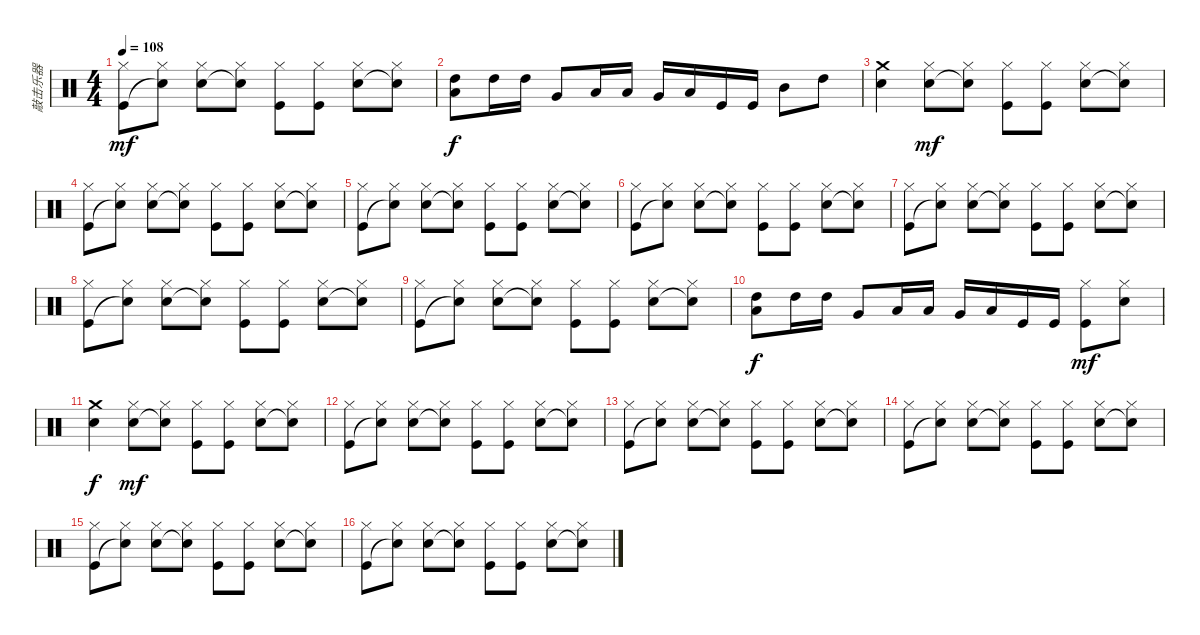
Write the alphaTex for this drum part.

\track ("敲击乐器" "敲击乐器") {instrument percussion}
\staff {score}
\articulation defaults
\ts (4 4)
\tempo 108
\clef neutral
\ks c
("Hi-Hat (closed)" "Kick (hit)").8{dy mf} ("Hi-Hat (closed)" "Snare (hit)"{t}).8 ("Hi-Hat (closed)" "Electric Snare (hit)").8 ("Hi-Hat (closed)" "Snare (hit)"{t}).8 ("Hi-Hat (closed)" "Kick (hit)").8 ("Hi-Hat (closed)" "Kick (hit)").8 ("Hi-Hat (closed)" "Electric Snare (hit)").8 ("Hi-Hat (closed)" "Snare (hit)"{t}).8 |
("Low Tom (hit)" "High Tom (hit)").8{dy f} "High Tom (hit)".16 "High Tom (hit)".16 "Very Low Tom (hit)".8 "Low Tom (hit)".16 "Low Tom (hit)".16 "Very Low Tom (hit)".16 "Low Floor Tom (hit)".16 "Kick (hit)".16 "Kick (hit)".16 "Mid Tom (hit)".8 "High Tom (hit)".8 |
("Crash medium (hit)" "Electric Snare (hit)").4 ("Hi-Hat (closed)" "Electric Snare (hit)").8{dy mf} ("Hi-Hat (closed)" "Snare (hit)"{t}).8 ("Hi-Hat (closed)" "Kick (hit)").8 ("Hi-Hat (closed)" "Kick (hit)").8 ("Hi-Hat (closed)" "Electric Snare (hit)").8 ("Hi-Hat (closed)" "Snare (hit)"{t}).8 |
("Hi-Hat (closed)" "Kick (hit)").8 ("Hi-Hat (closed)" "Snare (hit)"{t}).8 ("Hi-Hat (closed)" "Electric Snare (hit)").8 ("Hi-Hat (closed)" "Snare (hit)"{t}).8 ("Hi-Hat (closed)" "Kick (hit)").8 ("Hi-Hat (closed)" "Kick (hit)").8 ("Hi-Hat (closed)" "Electric Snare (hit)").8 ("Hi-Hat (closed)" "Snare (hit)"{t}).8 |
("Hi-Hat (closed)" "Kick (hit)").8 ("Hi-Hat (closed)" "Snare (hit)"{t}).8 ("Hi-Hat (closed)" "Electric Snare (hit)").8 ("Hi-Hat (closed)" "Snare (hit)"{t}).8 ("Hi-Hat (closed)" "Kick (hit)").8 ("Hi-Hat (closed)" "Kick (hit)").8 ("Hi-Hat (closed)" "Electric Snare (hit)").8 ("Hi-Hat (closed)" "Snare (hit)"{t}).8 |
("Hi-Hat (closed)" "Kick (hit)").8 ("Hi-Hat (closed)" "Snare (hit)"{t}).8 ("Hi-Hat (closed)" "Electric Snare (hit)").8 ("Hi-Hat (closed)" "Snare (hit)"{t}).8 ("Hi-Hat (closed)" "Kick (hit)").8 ("Hi-Hat (closed)" "Kick (hit)").8 ("Hi-Hat (closed)" "Electric Snare (hit)").8 ("Hi-Hat (closed)" "Snare (hit)"{t}).8 |
("Hi-Hat (closed)" "Kick (hit)").8 ("Hi-Hat (closed)" "Snare (hit)"{t}).8 ("Hi-Hat (closed)" "Electric Snare (hit)").8 ("Hi-Hat (closed)" "Snare (hit)"{t}).8 ("Hi-Hat (closed)" "Kick (hit)").8 ("Hi-Hat (closed)" "Kick (hit)").8 ("Hi-Hat (closed)" "Electric Snare (hit)").8 ("Hi-Hat (closed)" "Snare (hit)"{t}).8 |
("Hi-Hat (closed)" "Kick (hit)").8 ("Hi-Hat (closed)" "Snare (hit)"{t}).8 ("Hi-Hat (closed)" "Electric Snare (hit)").8 ("Hi-Hat (closed)" "Snare (hit)"{t}).8 ("Hi-Hat (closed)" "Kick (hit)").8 ("Hi-Hat (closed)" "Kick (hit)").8 ("Hi-Hat (closed)" "Electric Snare (hit)").8 ("Hi-Hat (closed)" "Snare (hit)"{t}).8 |
("Hi-Hat (closed)" "Kick (hit)").8 ("Hi-Hat (closed)" "Snare (hit)"{t}).8 ("Hi-Hat (closed)" "Electric Snare (hit)").8 ("Hi-Hat (closed)" "Snare (hit)"{t}).8 ("Hi-Hat (closed)" "Kick (hit)").8 ("Hi-Hat (closed)" "Kick (hit)").8 ("Hi-Hat (closed)" "Electric Snare (hit)").8 ("Hi-Hat (closed)" "Snare (hit)"{t}).8 |
("Low Tom (hit)" "High Tom (hit)").8{dy f} "High Tom (hit)".16 "High Tom (hit)".16 "Very Low Tom (hit)".8 "Low Tom (hit)".16 "Low Tom (hit)".16 "Very Low Tom (hit)".16 "Low Floor Tom (hit)".16 "Kick (hit)".16 "Kick (hit)".16 ("Hi-Hat (closed)" "Kick (hit)").8{dy mf} ("Hi-Hat (closed)" "Electric Snare (hit)").8 |
("Crash medium (hit)" "Electric Snare (hit)").4{dy f} ("Hi-Hat (closed)" "Electric Snare (hit)").8{dy mf} ("Hi-Hat (closed)" "Snare (hit)"{t}).8 ("Hi-Hat (closed)" "Kick (hit)").8 ("Hi-Hat (closed)" "Kick (hit)").8 ("Hi-Hat (closed)" "Electric Snare (hit)").8 ("Hi-Hat (closed)" "Snare (hit)"{t}).8 |
("Hi-Hat (closed)" "Kick (hit)").8 ("Hi-Hat (closed)" "Snare (hit)"{t}).8 ("Hi-Hat (closed)" "Electric Snare (hit)").8 ("Hi-Hat (closed)" "Snare (hit)"{t}).8 ("Hi-Hat (closed)" "Kick (hit)").8 ("Hi-Hat (closed)" "Kick (hit)").8 ("Hi-Hat (closed)" "Electric Snare (hit)").8 ("Hi-Hat (closed)" "Snare (hit)"{t}).8 |
("Hi-Hat (closed)" "Kick (hit)").8 ("Hi-Hat (closed)" "Snare (hit)"{t}).8 ("Hi-Hat (closed)" "Electric Snare (hit)").8 ("Hi-Hat (closed)" "Snare (hit)"{t}).8 ("Hi-Hat (closed)" "Kick (hit)").8 ("Hi-Hat (closed)" "Kick (hit)").8 ("Hi-Hat (closed)" "Electric Snare (hit)").8 ("Hi-Hat (closed)" "Snare (hit)"{t}).8 |
("Hi-Hat (closed)" "Kick (hit)").8 ("Hi-Hat (closed)" "Snare (hit)"{t}).8 ("Hi-Hat (closed)" "Electric Snare (hit)").8 ("Hi-Hat (closed)" "Snare (hit)"{t}).8 ("Hi-Hat (closed)" "Kick (hit)").8 ("Hi-Hat (closed)" "Kick (hit)").8 ("Hi-Hat (closed)" "Electric Snare (hit)").8 ("Hi-Hat (closed)" "Snare (hit)"{t}).8 |
("Hi-Hat (closed)" "Kick (hit)").8 ("Hi-Hat (closed)" "Snare (hit)"{t}).8 ("Hi-Hat (closed)" "Electric Snare (hit)").8 ("Hi-Hat (closed)" "Snare (hit)"{t}).8 ("Hi-Hat (closed)" "Kick (hit)").8 ("Hi-Hat (closed)" "Kick (hit)").8 ("Hi-Hat (closed)" "Electric Snare (hit)").8 ("Hi-Hat (closed)" "Snare (hit)"{t}).8 |
("Hi-Hat (closed)" "Kick (hit)").8 ("Hi-Hat (closed)" "Snare (hit)"{t}).8 ("Hi-Hat (closed)" "Electric Snare (hit)").8 ("Hi-Hat (closed)" "Snare (hit)"{t}).8 ("Hi-Hat (closed)" "Kick (hit)").8 ("Hi-Hat (closed)" "Kick (hit)").8 ("Hi-Hat (closed)" "Electric Snare (hit)").8 ("Hi-Hat (closed)" "Snare (hit)"{t}).8
